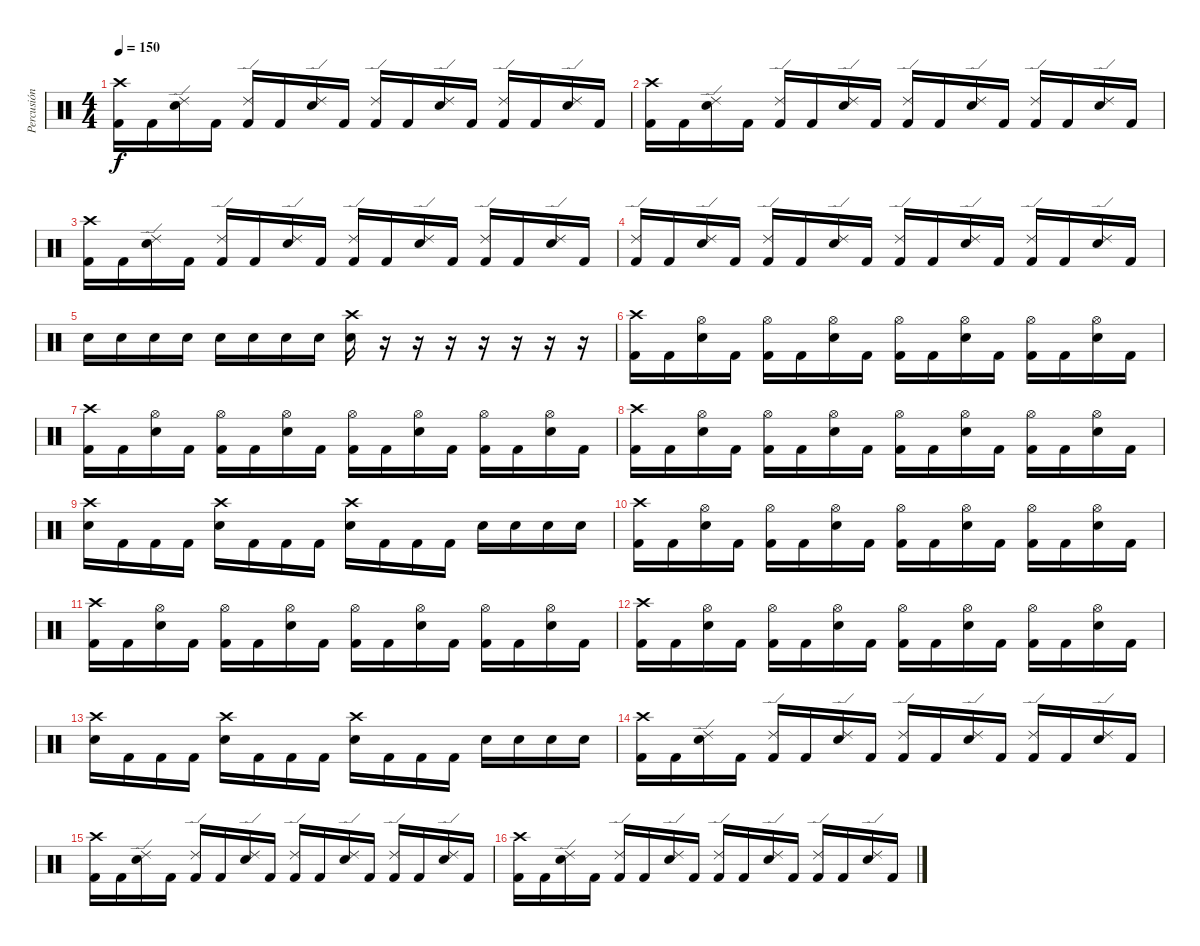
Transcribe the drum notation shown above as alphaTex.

\track ("Percusión" "Percusión") {instrument percussion}
\staff {score}
\articulation defaults
\ts (4 4)
\tempo 150
\clef neutral
\ks c
("Crash high (hit)" "Kick (hit) 2").16{dy f} "Kick (hit) 2".16 ("Ride (edge) 2" "Electric Snare (hit)").16 "Kick (hit) 2".16 ("Ride (edge) 2" "Kick (hit) 2").16 "Kick (hit) 2".16 ("Ride (edge) 2" "Electric Snare (hit)").16 "Kick (hit) 2".16 ("Ride (edge) 2" "Kick (hit) 2").16 "Kick (hit) 2".16 ("Ride (edge) 2" "Electric Snare (hit)").16 "Kick (hit) 2".16 ("Ride (edge) 2" "Kick (hit) 2").16 "Kick (hit) 2".16 ("Ride (edge) 2" "Electric Snare (hit)").16 "Kick (hit) 2".16 |
("Crash high (hit)" "Kick (hit) 2").16 "Kick (hit) 2".16 ("Ride (edge) 2" "Electric Snare (hit)").16 "Kick (hit) 2".16 ("Ride (edge) 2" "Kick (hit) 2").16 "Kick (hit) 2".16 ("Ride (edge) 2" "Electric Snare (hit)").16 "Kick (hit) 2".16 ("Ride (edge) 2" "Kick (hit) 2").16 "Kick (hit) 2".16 ("Ride (edge) 2" "Electric Snare (hit)").16 "Kick (hit) 2".16 ("Ride (edge) 2" "Kick (hit) 2").16 "Kick (hit) 2".16 ("Ride (edge) 2" "Electric Snare (hit)").16 "Kick (hit) 2".16 |
("Crash high (hit)" "Kick (hit) 2").16 "Kick (hit) 2".16 ("Ride (edge) 2" "Electric Snare (hit)").16 "Kick (hit) 2".16 ("Ride (edge) 2" "Kick (hit) 2").16 "Kick (hit) 2".16 ("Ride (edge) 2" "Electric Snare (hit)").16 "Kick (hit) 2".16 ("Ride (edge) 2" "Kick (hit) 2").16 "Kick (hit) 2".16 ("Ride (edge) 2" "Electric Snare (hit)").16 "Kick (hit) 2".16 ("Ride (edge) 2" "Kick (hit) 2").16 "Kick (hit) 2".16 ("Ride (edge) 2" "Electric Snare (hit)").16 "Kick (hit) 2".16 |
("Ride (edge) 2" "Kick (hit) 2").16 "Kick (hit) 2".16 ("Ride (edge) 2" "Electric Snare (hit)").16 "Kick (hit) 2".16 ("Ride (edge) 2" "Kick (hit) 2").16 "Kick (hit) 2".16 ("Ride (edge) 2" "Electric Snare (hit)").16 "Kick (hit) 2".16 ("Ride (edge) 2" "Kick (hit) 2").16 "Kick (hit) 2".16 ("Ride (edge) 2" "Electric Snare (hit)").16 "Kick (hit) 2".16 ("Ride (edge) 2" "Kick (hit) 2").16 "Kick (hit) 2".16 ("Ride (edge) 2" "Electric Snare (hit)").16 "Kick (hit) 2".16 |
"Electric Snare (hit)".16 "Electric Snare (hit)".16 "Electric Snare (hit)".16 "Electric Snare (hit)".16 "Electric Snare (hit)".16 "Electric Snare (hit)".16 "Electric Snare (hit)".16 "Electric Snare (hit)".16 ("Crash high (hit)" "Electric Snare (hit)").16 r.16 r.16 r.16 r.16 r.16 r.16 r.16 |
("Crash high (hit)" "Kick (hit) 2").16 "Kick (hit) 2".16 ("Hi-Hat (open)" "Electric Snare (hit)").16 "Kick (hit) 2".16 ("Hi-Hat (open)" "Kick (hit) 2").16 "Kick (hit) 2".16 ("Hi-Hat (open)" "Electric Snare (hit)").16 "Kick (hit) 2".16 ("Hi-Hat (open)" "Kick (hit) 2").16 "Kick (hit) 2".16 ("Hi-Hat (open)" "Electric Snare (hit)").16 "Kick (hit) 2".16 ("Hi-Hat (open)" "Kick (hit) 2").16 "Kick (hit) 2".16 ("Hi-Hat (open)" "Electric Snare (hit)").16 "Kick (hit) 2".16 |
("Crash high (hit)" "Kick (hit) 2").16 "Kick (hit) 2".16 ("Hi-Hat (open)" "Electric Snare (hit)").16 "Kick (hit) 2".16 ("Hi-Hat (open)" "Kick (hit) 2").16 "Kick (hit) 2".16 ("Hi-Hat (open)" "Electric Snare (hit)").16 "Kick (hit) 2".16 ("Hi-Hat (open)" "Kick (hit) 2").16 "Kick (hit) 2".16 ("Hi-Hat (open)" "Electric Snare (hit)").16 "Kick (hit) 2".16 ("Hi-Hat (open)" "Kick (hit) 2").16 "Kick (hit) 2".16 ("Hi-Hat (open)" "Electric Snare (hit)").16 "Kick (hit) 2".16 |
("Crash high (hit)" "Kick (hit) 2").16 "Kick (hit) 2".16 ("Hi-Hat (open)" "Electric Snare (hit)").16 "Kick (hit) 2".16 ("Hi-Hat (open)" "Kick (hit) 2").16 "Kick (hit) 2".16 ("Hi-Hat (open)" "Electric Snare (hit)").16 "Kick (hit) 2".16 ("Hi-Hat (open)" "Kick (hit) 2").16 "Kick (hit) 2".16 ("Hi-Hat (open)" "Electric Snare (hit)").16 "Kick (hit) 2".16 ("Hi-Hat (open)" "Kick (hit) 2").16 "Kick (hit) 2".16 ("Hi-Hat (open)" "Electric Snare (hit)").16 "Kick (hit) 2".16 |
("Crash high (hit)" "Electric Snare (hit)").16 "Kick (hit) 2".16 "Kick (hit) 2".16 "Kick (hit) 2".16 ("Crash high (hit)" "Electric Snare (hit)").16 "Kick (hit) 2".16 "Kick (hit) 2".16 "Kick (hit) 2".16 ("Crash high (hit)" "Electric Snare (hit)").16 "Kick (hit) 2".16 "Kick (hit) 2".16 "Kick (hit) 2".16 "Electric Snare (hit)".16 "Electric Snare (hit)".16 "Electric Snare (hit)".16 "Electric Snare (hit)".16 |
("Crash high (hit)" "Kick (hit) 2").16 "Kick (hit) 2".16 ("Hi-Hat (open)" "Electric Snare (hit)").16 "Kick (hit) 2".16 ("Hi-Hat (open)" "Kick (hit) 2").16 "Kick (hit) 2".16 ("Hi-Hat (open)" "Electric Snare (hit)").16 "Kick (hit) 2".16 ("Hi-Hat (open)" "Kick (hit) 2").16 "Kick (hit) 2".16 ("Hi-Hat (open)" "Electric Snare (hit)").16 "Kick (hit) 2".16 ("Hi-Hat (open)" "Kick (hit) 2").16 "Kick (hit) 2".16 ("Hi-Hat (open)" "Electric Snare (hit)").16 "Kick (hit) 2".16 |
("Crash high (hit)" "Kick (hit) 2").16 "Kick (hit) 2".16 ("Hi-Hat (open)" "Electric Snare (hit)").16 "Kick (hit) 2".16 ("Hi-Hat (open)" "Kick (hit) 2").16 "Kick (hit) 2".16 ("Hi-Hat (open)" "Electric Snare (hit)").16 "Kick (hit) 2".16 ("Hi-Hat (open)" "Kick (hit) 2").16 "Kick (hit) 2".16 ("Hi-Hat (open)" "Electric Snare (hit)").16 "Kick (hit) 2".16 ("Hi-Hat (open)" "Kick (hit) 2").16 "Kick (hit) 2".16 ("Hi-Hat (open)" "Electric Snare (hit)").16 "Kick (hit) 2".16 |
("Crash high (hit)" "Kick (hit) 2").16 "Kick (hit) 2".16 ("Hi-Hat (open)" "Electric Snare (hit)").16 "Kick (hit) 2".16 ("Hi-Hat (open)" "Kick (hit) 2").16 "Kick (hit) 2".16 ("Hi-Hat (open)" "Electric Snare (hit)").16 "Kick (hit) 2".16 ("Hi-Hat (open)" "Kick (hit) 2").16 "Kick (hit) 2".16 ("Hi-Hat (open)" "Electric Snare (hit)").16 "Kick (hit) 2".16 ("Hi-Hat (open)" "Kick (hit) 2").16 "Kick (hit) 2".16 ("Hi-Hat (open)" "Electric Snare (hit)").16 "Kick (hit) 2".16 |
("Crash high (hit)" "Electric Snare (hit)").16 "Kick (hit) 2".16 "Kick (hit) 2".16 "Kick (hit) 2".16 ("Crash high (hit)" "Electric Snare (hit)").16 "Kick (hit) 2".16 "Kick (hit) 2".16 "Kick (hit) 2".16 ("Crash high (hit)" "Electric Snare (hit)").16 "Kick (hit) 2".16 "Kick (hit) 2".16 "Kick (hit) 2".16 "Electric Snare (hit)".16 "Electric Snare (hit)".16 "Electric Snare (hit)".16 "Electric Snare (hit)".16 |
("Crash high (hit)" "Kick (hit) 2").16 "Kick (hit) 2".16 ("Ride (edge) 2" "Electric Snare (hit)").16 "Kick (hit) 2".16 ("Ride (edge) 2" "Kick (hit) 2").16 "Kick (hit) 2".16 ("Ride (edge) 2" "Electric Snare (hit)").16 "Kick (hit) 2".16 ("Ride (edge) 2" "Kick (hit) 2").16 "Kick (hit) 2".16 ("Ride (edge) 2" "Electric Snare (hit)").16 "Kick (hit) 2".16 ("Ride (edge) 2" "Kick (hit) 2").16 "Kick (hit) 2".16 ("Ride (edge) 2" "Electric Snare (hit)").16 "Kick (hit) 2".16 |
("Crash high (hit)" "Kick (hit) 2").16 "Kick (hit) 2".16 ("Ride (edge) 2" "Electric Snare (hit)").16 "Kick (hit) 2".16 ("Ride (edge) 2" "Kick (hit) 2").16 "Kick (hit) 2".16 ("Ride (edge) 2" "Electric Snare (hit)").16 "Kick (hit) 2".16 ("Ride (edge) 2" "Kick (hit) 2").16 "Kick (hit) 2".16 ("Ride (edge) 2" "Electric Snare (hit)").16 "Kick (hit) 2".16 ("Ride (edge) 2" "Kick (hit) 2").16 "Kick (hit) 2".16 ("Ride (edge) 2" "Electric Snare (hit)").16 "Kick (hit) 2".16 |
("Crash high (hit)" "Kick (hit) 2").16 "Kick (hit) 2".16 ("Ride (edge) 2" "Electric Snare (hit)").16 "Kick (hit) 2".16 ("Ride (edge) 2" "Kick (hit) 2").16 "Kick (hit) 2".16 ("Ride (edge) 2" "Electric Snare (hit)").16 "Kick (hit) 2".16 ("Ride (edge) 2" "Kick (hit) 2").16 "Kick (hit) 2".16 ("Ride (edge) 2" "Electric Snare (hit)").16 "Kick (hit) 2".16 ("Ride (edge) 2" "Kick (hit) 2").16 "Kick (hit) 2".16 ("Ride (edge) 2" "Electric Snare (hit)").16 "Kick (hit) 2".16
